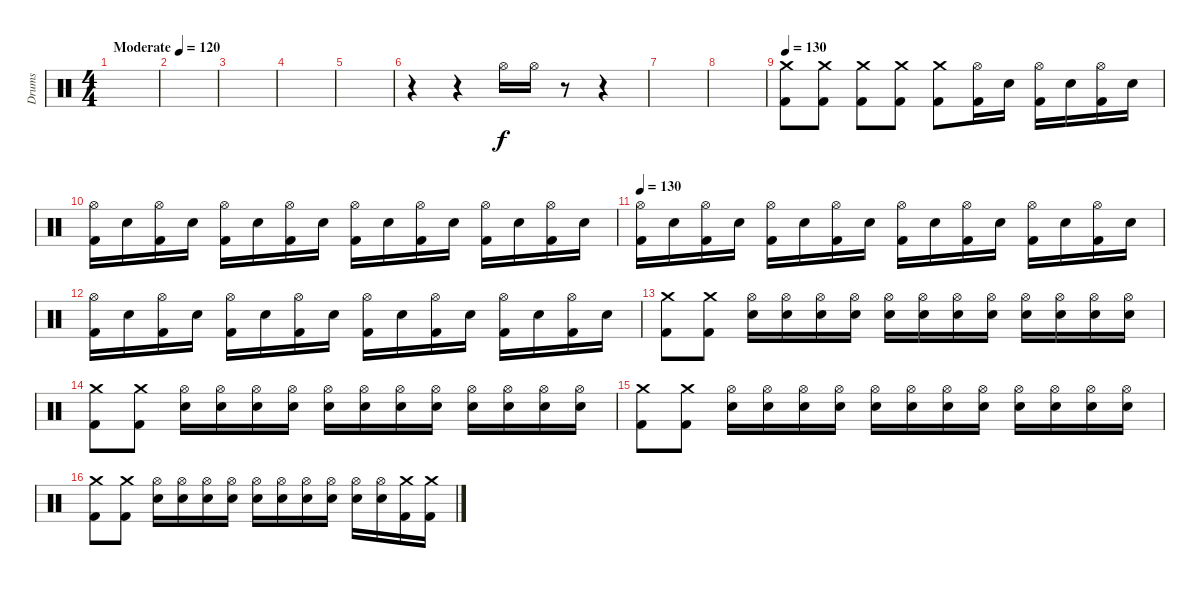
\track ("Drums" "Drums") {instrument percussion}
\staff {score}
\articulation defaults
\ts (4 4)
\tempo (120 "Moderate")
\clef neutral
\ks c
|
|
|
|
|
r.4 r.4 "Hi-Hat (open)".16 "Hi-Hat (open)".16 r.8 r.4 |
|
|
\tempo 130
("Crash medium (hit)" "Kick (hit) 2").8 ("Crash medium (hit)" "Kick (hit) 2").8 ("Crash medium (hit)" "Kick (hit) 2").8 ("Crash medium (hit)" "Kick (hit) 2").8 ("Crash medium (hit)" "Kick (hit) 2").8 ("Kick (hit) 2" "Hi-Hat (open)").16 "Snare (hit) 2".16 ("Kick (hit) 2" "Hi-Hat (open)").16 "Snare (hit) 2".16 ("Kick (hit) 2" "Hi-Hat (open)").16 "Snare (hit) 2".16 |
("Kick (hit) 2" "Hi-Hat (open)").16 "Snare (hit) 2".16 ("Kick (hit) 2" "Hi-Hat (open)").16 "Snare (hit) 2".16 ("Kick (hit) 2" "Hi-Hat (open)").16 "Snare (hit) 2".16 ("Kick (hit) 2" "Hi-Hat (open)").16 "Snare (hit) 2".16 ("Kick (hit) 2" "Hi-Hat (open)").16 "Snare (hit) 2".16 ("Kick (hit) 2" "Hi-Hat (open)").16 "Snare (hit) 2".16 ("Kick (hit) 2" "Hi-Hat (open)").16 "Snare (hit) 2".16 ("Kick (hit) 2" "Hi-Hat (open)").16 "Snare (hit) 2".16 |
\tempo 130
("Kick (hit) 2" "Hi-Hat (open)").16 "Snare (hit) 2".16 ("Kick (hit) 2" "Hi-Hat (open)").16 "Snare (hit) 2".16 ("Kick (hit) 2" "Hi-Hat (open)").16 "Snare (hit) 2".16 ("Kick (hit) 2" "Hi-Hat (open)").16 "Snare (hit) 2".16 ("Kick (hit) 2" "Hi-Hat (open)").16 "Snare (hit) 2".16 ("Kick (hit) 2" "Hi-Hat (open)").16 "Snare (hit) 2".16 ("Kick (hit) 2" "Hi-Hat (open)").16 "Snare (hit) 2".16 ("Kick (hit) 2" "Hi-Hat (open)").16 "Snare (hit) 2".16 |
("Kick (hit) 2" "Hi-Hat (open)").16 "Snare (hit) 2".16 ("Kick (hit) 2" "Hi-Hat (open)").16 "Snare (hit) 2".16 ("Kick (hit) 2" "Hi-Hat (open)").16 "Snare (hit) 2".16 ("Kick (hit) 2" "Hi-Hat (open)").16 "Snare (hit) 2".16 ("Kick (hit) 2" "Hi-Hat (open)").16 "Snare (hit) 2".16 ("Kick (hit) 2" "Hi-Hat (open)").16 "Snare (hit) 2".16 ("Kick (hit) 2" "Hi-Hat (open)").16 "Snare (hit) 2".16 ("Kick (hit) 2" "Hi-Hat (open)").16 "Snare (hit) 2".16 |
("Crash medium (hit)" "Kick (hit) 2").8 ("Crash medium (hit)" "Kick (hit) 2").8 ("Hi-Hat (open)" "Snare (hit) 2").16 ("Hi-Hat (open)" "Snare (hit) 2").16 ("Hi-Hat (open)" "Snare (hit) 2").16 ("Hi-Hat (open)" "Snare (hit) 2").16 ("Hi-Hat (open)" "Snare (hit) 2").16 ("Hi-Hat (open)" "Snare (hit) 2").16 ("Hi-Hat (open)" "Snare (hit) 2").16 ("Hi-Hat (open)" "Snare (hit) 2").16 ("Hi-Hat (open)" "Snare (hit) 2").16 ("Hi-Hat (open)" "Snare (hit) 2").16 ("Hi-Hat (open)" "Snare (hit) 2").16 ("Hi-Hat (open)" "Snare (hit) 2").16 |
("Crash medium (hit)" "Kick (hit) 2").8 ("Crash medium (hit)" "Kick (hit) 2").8 ("Hi-Hat (open)" "Snare (hit) 2").16 ("Hi-Hat (open)" "Snare (hit) 2").16 ("Hi-Hat (open)" "Snare (hit) 2").16 ("Hi-Hat (open)" "Snare (hit) 2").16 ("Hi-Hat (open)" "Snare (hit) 2").16 ("Hi-Hat (open)" "Snare (hit) 2").16 ("Hi-Hat (open)" "Snare (hit) 2").16 ("Hi-Hat (open)" "Snare (hit) 2").16 ("Hi-Hat (open)" "Snare (hit) 2").16 ("Hi-Hat (open)" "Snare (hit) 2").16 ("Hi-Hat (open)" "Snare (hit) 2").16 ("Hi-Hat (open)" "Snare (hit) 2").16 |
("Crash medium (hit)" "Kick (hit) 2").8 ("Crash medium (hit)" "Kick (hit) 2").8 ("Hi-Hat (open)" "Snare (hit) 2").16 ("Hi-Hat (open)" "Snare (hit) 2").16 ("Hi-Hat (open)" "Snare (hit) 2").16 ("Hi-Hat (open)" "Snare (hit) 2").16 ("Hi-Hat (open)" "Snare (hit) 2").16 ("Hi-Hat (open)" "Snare (hit) 2").16 ("Hi-Hat (open)" "Snare (hit) 2").16 ("Hi-Hat (open)" "Snare (hit) 2").16 ("Hi-Hat (open)" "Snare (hit) 2").16 ("Hi-Hat (open)" "Snare (hit) 2").16 ("Hi-Hat (open)" "Snare (hit) 2").16 ("Hi-Hat (open)" "Snare (hit) 2").16 |
("Crash medium (hit)" "Kick (hit) 2").8 ("Crash medium (hit)" "Kick (hit) 2").8 ("Hi-Hat (open)" "Snare (hit) 2").16 ("Hi-Hat (open)" "Snare (hit) 2").16 ("Hi-Hat (open)" "Snare (hit) 2").16 ("Hi-Hat (open)" "Snare (hit) 2").16 ("Hi-Hat (open)" "Snare (hit) 2").16 ("Hi-Hat (open)" "Snare (hit) 2").16 ("Hi-Hat (open)" "Snare (hit) 2").16 ("Hi-Hat (open)" "Snare (hit) 2").16 ("Hi-Hat (open)" "Snare (hit) 2").16 ("Hi-Hat (open)" "Snare (hit) 2").16 ("Crash medium (hit)" "Kick (hit) 2").16 ("Crash medium (hit)" "Kick (hit) 2").16
